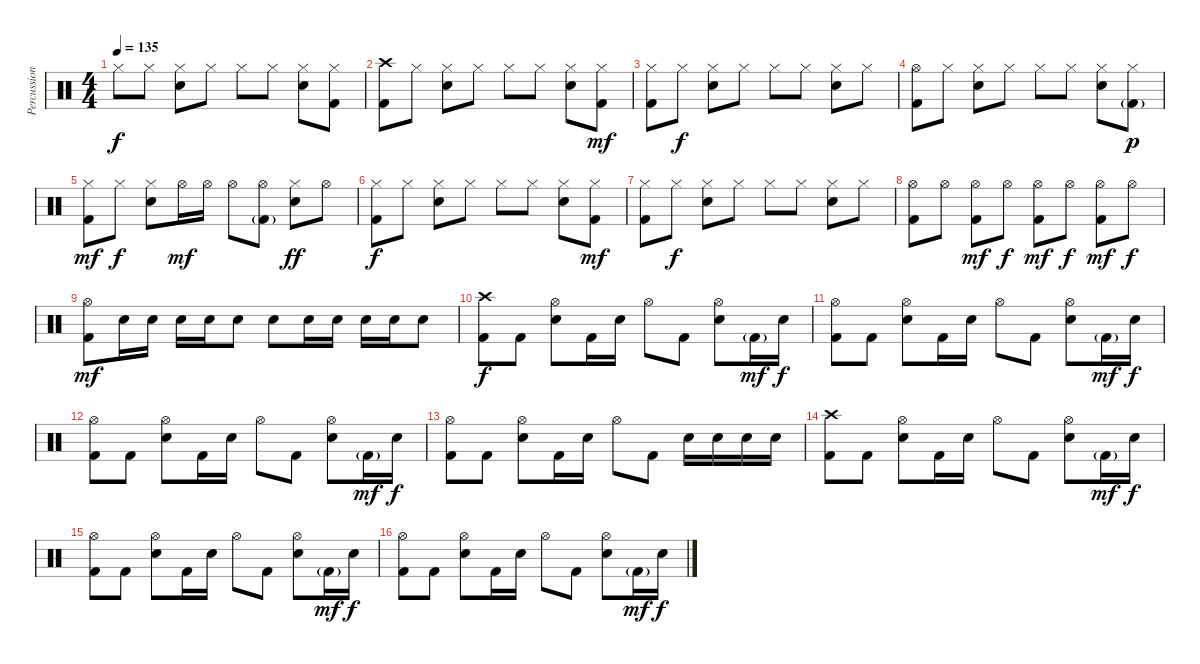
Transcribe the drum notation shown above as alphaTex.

\track ("Percussions" "Percussion") {instrument percussion}
\staff {score}
\articulation defaults
\ts (4 4)
\tempo 135
\clef neutral
\ks c "Hi-Hat (closed)".8{dy f} "Hi-Hat (closed)".8
("Hi-Hat (closed)" "Snare (hit) 2").8 "Hi-Hat (closed)".8 "Hi-Hat (closed)".8 "Hi-Hat (closed)".8 ("Hi-Hat (closed)" "Snare (hit) 2").8 ("Hi-Hat (closed)" "Kick (hit) 2").8 |
("Crash high (hit)" "Kick (hit) 2").8 "Hi-Hat (closed)".8 ("Hi-Hat (closed)" "Snare (hit) 2").8 "Hi-Hat (closed)".8 "Hi-Hat (closed)".8 "Hi-Hat (closed)".8 ("Hi-Hat (closed)" "Snare (hit) 2").8 ("Hi-Hat (closed)" "Kick (hit) 2").8{dy mf} |
("Hi-Hat (closed)" "Kick (hit) 2").8 "Hi-Hat (closed)".8{dy f} ("Hi-Hat (closed)" "Snare (hit) 2").8 "Hi-Hat (closed)".8 "Hi-Hat (closed)".8 "Hi-Hat (closed)".8 ("Hi-Hat (closed)" "Snare (hit) 2").8 "Hi-Hat (closed)".8 |
("Hi-Hat (open)" "Kick (hit) 2").8 "Hi-Hat (closed)".8 ("Hi-Hat (closed)" "Snare (hit) 2").8 "Hi-Hat (closed)".8 "Hi-Hat (closed)".8 "Hi-Hat (closed)".8 ("Hi-Hat (closed)" "Snare (hit) 2").8 ("Hi-Hat (closed)" "Kick (hit) 2"{g}).8{dy p} |
("Hi-Hat (closed)" "Kick (hit) 2").8{dy mf} "Hi-Hat (closed)".8{dy f} ("Hi-Hat (closed)" "Snare (hit) 2").8 "Hi-Hat (open)".16{dy mf} "Hi-Hat (open)".16 "Hi-Hat (open)".8 ("Hi-Hat (open)" "Kick (hit) 2"{g}).8 ("Hi-Hat (closed)" "Snare (hit) 2").8{dy ff} "Hi-Hat (open)".8 |
("Hi-Hat (closed)" "Kick (hit) 2").8{dy f} "Hi-Hat (closed)".8 ("Hi-Hat (closed)" "Snare (hit) 2").8 "Hi-Hat (closed)".8 "Hi-Hat (closed)".8 "Hi-Hat (closed)".8 ("Hi-Hat (closed)" "Snare (hit) 2").8 ("Hi-Hat (closed)" "Kick (hit) 2").8{dy mf} |
("Hi-Hat (closed)" "Kick (hit) 2").8 "Hi-Hat (closed)".8{dy f} ("Hi-Hat (closed)" "Snare (hit) 2").8 "Hi-Hat (closed)".8 "Hi-Hat (closed)".8 "Hi-Hat (closed)".8 ("Hi-Hat (closed)" "Snare (hit) 2").8 "Hi-Hat (closed)".8 |
("Hi-Hat (open)" "Kick (hit) 2").8 "Hi-Hat (open)".8 ("Hi-Hat (open)" "Kick (hit) 2").8{dy mf} "Hi-Hat (open)".8{dy f} ("Hi-Hat (open)" "Kick (hit) 2").8{dy mf} "Hi-Hat (open)".8{dy f} ("Hi-Hat (open)" "Kick (hit) 2").8{dy mf} "Hi-Hat (open)".8{dy f} |
("Hi-Hat (open)" "Kick (hit) 2").8{dy mf} "Snare (hit) 2".16 "Snare (hit) 2".16 "Snare (hit) 2".16 "Snare (hit) 2".16 "Snare (hit) 2".8 "Snare (hit) 2".8 "Snare (hit) 2".16 "Snare (hit) 2".16 "Snare (hit) 2".16 "Snare (hit) 2".16 "Snare (hit) 2".8 |
("Crash high (hit)" "Kick (hit) 2").8{dy f} "Kick (hit) 2".8 ("Hi-Hat (open)" "Snare (hit) 2").8 "Kick (hit) 2".16 "Snare (hit) 2".16 "Hi-Hat (open)".8 "Kick (hit) 2".8 ("Hi-Hat (open)" "Snare (hit) 2").8 "Kick (hit) 2"{g}.16{dy mf} "Snare (hit) 2".16{dy f} |
("Hi-Hat (open)" "Kick (hit) 2").8 "Kick (hit) 2".8 ("Hi-Hat (open)" "Snare (hit) 2").8 "Kick (hit) 2".16 "Snare (hit) 2".16 "Hi-Hat (open)".8 "Kick (hit) 2".8 ("Hi-Hat (open)" "Snare (hit) 2").8 "Kick (hit) 2"{g}.16{dy mf} "Snare (hit) 2".16{dy f} |
("Hi-Hat (open)" "Kick (hit) 2").8 "Kick (hit) 2".8 ("Hi-Hat (open)" "Snare (hit) 2").8 "Kick (hit) 2".16 "Snare (hit) 2".16 "Hi-Hat (open)".8 "Kick (hit) 2".8 ("Hi-Hat (open)" "Snare (hit) 2").8 "Kick (hit) 2"{g}.16{dy mf} "Snare (hit) 2".16{dy f} |
("Hi-Hat (open)" "Kick (hit) 2").8 "Kick (hit) 2".8 ("Hi-Hat (open)" "Snare (hit) 2").8 "Kick (hit) 2".16 "Snare (hit) 2".16 "Hi-Hat (open)".8 "Kick (hit) 2".8 "Snare (hit) 2".16 "Snare (hit) 2".16 "Snare (hit) 2".16 "Snare (hit) 2".16 |
("Crash high (hit)" "Kick (hit) 2").8 "Kick (hit) 2".8 ("Hi-Hat (open)" "Snare (hit) 2").8 "Kick (hit) 2".16 "Snare (hit) 2".16 "Hi-Hat (open)".8 "Kick (hit) 2".8 ("Hi-Hat (open)" "Snare (hit) 2").8 "Kick (hit) 2"{g}.16{dy mf} "Snare (hit) 2".16{dy f} |
("Hi-Hat (open)" "Kick (hit) 2").8 "Kick (hit) 2".8 ("Hi-Hat (open)" "Snare (hit) 2").8 "Kick (hit) 2".16 "Snare (hit) 2".16 "Hi-Hat (open)".8 "Kick (hit) 2".8 ("Hi-Hat (open)" "Snare (hit) 2").8 "Kick (hit) 2"{g}.16{dy mf} "Snare (hit) 2".16{dy f} |
("Hi-Hat (open)" "Kick (hit) 2").8 "Kick (hit) 2".8 ("Hi-Hat (open)" "Snare (hit) 2").8 "Kick (hit) 2".16 "Snare (hit) 2".16 "Hi-Hat (open)".8 "Kick (hit) 2".8 ("Hi-Hat (open)" "Snare (hit) 2").8 "Kick (hit) 2"{g}.16{dy mf} "Snare (hit) 2".16{dy f}
